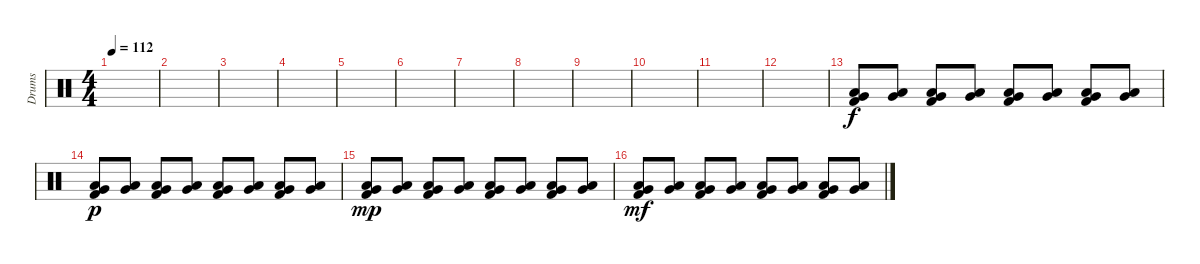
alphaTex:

\track ("Drums" "Drums") {instrument percussion}
\staff {score}
\articulation defaults
\ts (4 4)
\tempo 112
\clef neutral
\ks c
|
|
|
|
|
|
|
|
|
|
|
|
("Very Low Tom (hit)" "Low Tom (hit)" "Kick (hit) 2").8 ("Very Low Tom (hit)" "Low Tom (hit)").8 ("Very Low Tom (hit)" "Low Tom (hit)" "Kick (hit) 2").8 ("Very Low Tom (hit)" "Low Tom (hit)").8 ("Very Low Tom (hit)" "Low Tom (hit)" "Kick (hit) 2").8 ("Very Low Tom (hit)" "Low Tom (hit)").8 ("Very Low Tom (hit)" "Low Tom (hit)" "Kick (hit) 2").8 ("Very Low Tom (hit)" "Low Tom (hit)").8 |
("Very Low Tom (hit)" "Low Tom (hit)" "Kick (hit) 2").8{dy p} ("Very Low Tom (hit)" "Low Tom (hit)").8 ("Very Low Tom (hit)" "Low Tom (hit)" "Kick (hit) 2").8 ("Very Low Tom (hit)" "Low Tom (hit)").8 ("Very Low Tom (hit)" "Low Tom (hit)" "Kick (hit) 2").8 ("Very Low Tom (hit)" "Low Tom (hit)").8 ("Very Low Tom (hit)" "Low Tom (hit)" "Kick (hit) 2").8 ("Very Low Tom (hit)" "Low Tom (hit)").8 |
("Very Low Tom (hit)" "Low Tom (hit)" "Kick (hit) 2").8{dy mp} ("Very Low Tom (hit)" "Low Tom (hit)").8 ("Very Low Tom (hit)" "Low Tom (hit)" "Kick (hit) 2").8 ("Very Low Tom (hit)" "Low Tom (hit)").8 ("Very Low Tom (hit)" "Low Tom (hit)" "Kick (hit) 2").8 ("Very Low Tom (hit)" "Low Tom (hit)").8 ("Very Low Tom (hit)" "Low Tom (hit)" "Kick (hit) 2").8 ("Very Low Tom (hit)" "Low Tom (hit)").8 |
("Very Low Tom (hit)" "Low Tom (hit)" "Kick (hit) 2").8{dy mf} ("Very Low Tom (hit)" "Low Tom (hit)").8 ("Very Low Tom (hit)" "Low Tom (hit)" "Kick (hit) 2").8 ("Very Low Tom (hit)" "Low Tom (hit)").8 ("Very Low Tom (hit)" "Low Tom (hit)" "Kick (hit) 2").8 ("Very Low Tom (hit)" "Low Tom (hit)").8 ("Very Low Tom (hit)" "Low Tom (hit)" "Kick (hit) 2").8 ("Very Low Tom (hit)" "Low Tom (hit)").8
